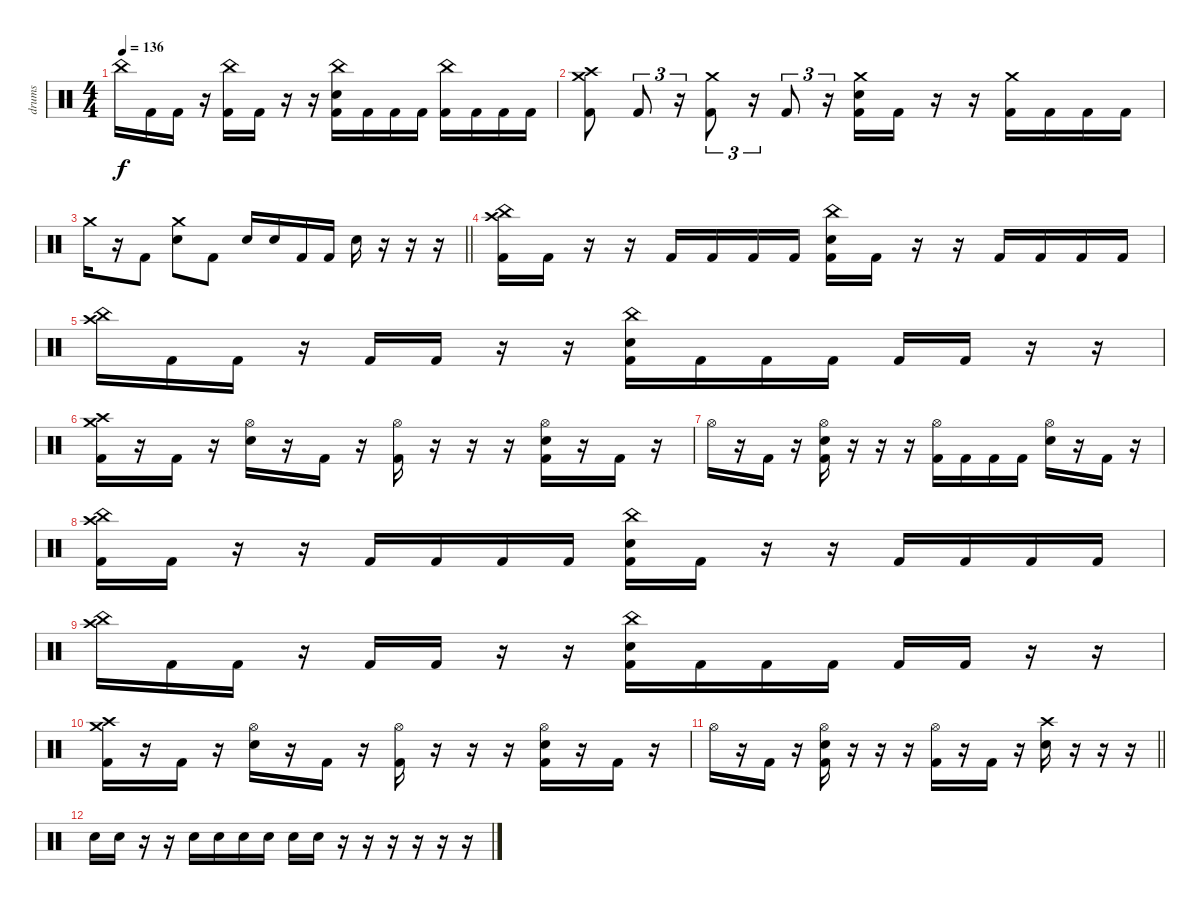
\track ("drums" "drums") {instrument percussion}
\staff {score}
\articulation defaults
\ts (4 4)
\tempo 136
\clef neutral
\ks c "China (hit)".16{dy f} "Kick (hit) 2".16 "Kick (hit) 2".16
r.16 ("China (hit)" "Kick (hit) 2").16 "Kick (hit) 2".16 r.16 r.16 ("China (hit)" "Electric Snare (hit)" "Kick (hit) 2").16 "Kick (hit) 2".16 "Kick (hit) 2".16 "Kick (hit) 2".16 ("China (hit)" "Kick (hit) 2").16 "Kick (hit) 2".16 "Kick (hit) 2".16 "Kick (hit) 2".16 |
("Crash medium (hit)" "Crash high (hit)" "Kick (hit) 2").8 "Kick (hit) 2".8{tu (3 2)} r.16{tu (3 2)} ("Crash medium (hit)" "Kick (hit) 2").8{tu (3 2)} r.16{tu (3 2)} "Kick (hit) 2".8{tu (3 2)} r.16{tu (3 2)} ("Crash medium (hit)" "Electric Snare (hit)" "Kick (hit) 2").16 "Kick (hit) 2".16 r.16 r.16 ("Crash medium (hit)" "Kick (hit) 2").16 "Kick (hit) 2".16 "Kick (hit) 2".16 "Kick (hit) 2".16 |
\barLineRight lightlight "Crash medium (hit)".16
r.16 "Kick (hit) 2".8 ("Crash medium (hit)" "Electric Snare (hit)").8 "Kick (hit) 2".8 "Electric Snare (hit)".16 "Electric Snare (hit)".16 "Kick (hit) 2".16 "Kick (hit) 2".16 "Electric Snare (hit)".16 r.16 r.16 r.16 |
("Crash high (hit)" "China (hit)" "Kick (hit) 2").16 "Kick (hit) 2".16 r.16 r.16 "Kick (hit) 2".16 "Kick (hit) 2".16 "Kick (hit) 2".16 "Kick (hit) 2".16 ("China (hit)" "Electric Snare (hit)" "Kick (hit) 2").16 "Kick (hit) 2".16 r.16 r.16 "Kick (hit) 2".16 "Kick (hit) 2".16 "Kick (hit) 2".16 "Kick (hit) 2".16 |
("China (hit)" "Crash high (hit)").16 "Kick (hit) 2".16 "Kick (hit) 2".16 r.16 "Kick (hit) 2".16 "Kick (hit) 2".16 r.16 r.16 ("China (hit)" "Electric Snare (hit)" "Kick (hit) 2").16 "Kick (hit) 2".16 "Kick (hit) 2".16 "Kick (hit) 2".16 "Kick (hit) 2".16 "Kick (hit) 2".16 r.16 r.16 |
("Crash high (hit)" "Crash medium (hit)" "Kick (hit) 2").16 r.16 "Kick (hit) 2".16 r.16 ("Hi-Hat (open)" "Electric Snare (hit)").16 r.16 "Kick (hit) 2".16 r.16 ("Hi-Hat (open)" "Kick (hit) 2").16 r.16 r.16 r.16 ("Hi-Hat (open)" "Electric Snare (hit)" "Kick (hit) 2").16 r.16 "Kick (hit) 2".16 r.16 |
"Hi-Hat (open)".16 r.16 "Kick (hit) 2".16 r.16 ("Hi-Hat (open)" "Electric Snare (hit)" "Kick (hit) 2").16 r.16 r.16 r.16 ("Hi-Hat (open)" "Kick (hit) 2").16 "Kick (hit) 2".16 "Kick (hit) 2".16 "Kick (hit) 2".16 ("Hi-Hat (open)" "Electric Snare (hit)").16 r.16 "Kick (hit) 2".16 r.16 |
("China (hit)" "Crash high (hit)" "Kick (hit) 2").16 "Kick (hit) 2".16 r.16 r.16 "Kick (hit) 2".16 "Kick (hit) 2".16 "Kick (hit) 2".16 "Kick (hit) 2".16 ("China (hit)" "Electric Snare (hit)" "Kick (hit) 2").16 "Kick (hit) 2".16 r.16 r.16 "Kick (hit) 2".16 "Kick (hit) 2".16 "Kick (hit) 2".16 "Kick (hit) 2".16 |
("China (hit)" "Crash high (hit)").16 "Kick (hit) 2".16 "Kick (hit) 2".16 r.16 "Kick (hit) 2".16 "Kick (hit) 2".16 r.16 r.16 ("China (hit)" "Electric Snare (hit)" "Kick (hit) 2").16 "Kick (hit) 2".16 "Kick (hit) 2".16 "Kick (hit) 2".16 "Kick (hit) 2".16 "Kick (hit) 2".16 r.16 r.16 |
("Crash medium (hit)" "Crash high (hit)" "Kick (hit) 2").16 r.16 "Kick (hit) 2".16 r.16 ("Hi-Hat (open)" "Electric Snare (hit)").16 r.16 "Kick (hit) 2".16 r.16 ("Hi-Hat (open)" "Kick (hit) 2").16 r.16 r.16 r.16 ("Hi-Hat (open)" "Electric Snare (hit)" "Kick (hit) 2").16 r.16 "Kick (hit) 2".16 r.16 |
\barLineRight lightlight "Hi-Hat (open)".16
r.16 "Kick (hit) 2".16 r.16 ("Hi-Hat (open)" "Electric Snare (hit)" "Kick (hit) 2").16 r.16 r.16 r.16 ("Hi-Hat (open)" "Kick (hit) 2").16 r.16 "Kick (hit) 2".16 r.16 ("Crash high (hit)" "Electric Snare (hit)").16 r.16 r.16 r.16 |
"Electric Snare (hit)".16 "Electric Snare (hit)".16 r.16 r.16 "Electric Snare (hit)".16 "Electric Snare (hit)".16 "Electric Snare (hit)".16 "Electric Snare (hit)".16 "Electric Snare (hit)".16 "Electric Snare (hit)".16 r.16 r.16 r.16 r.16 r.16 r.16
